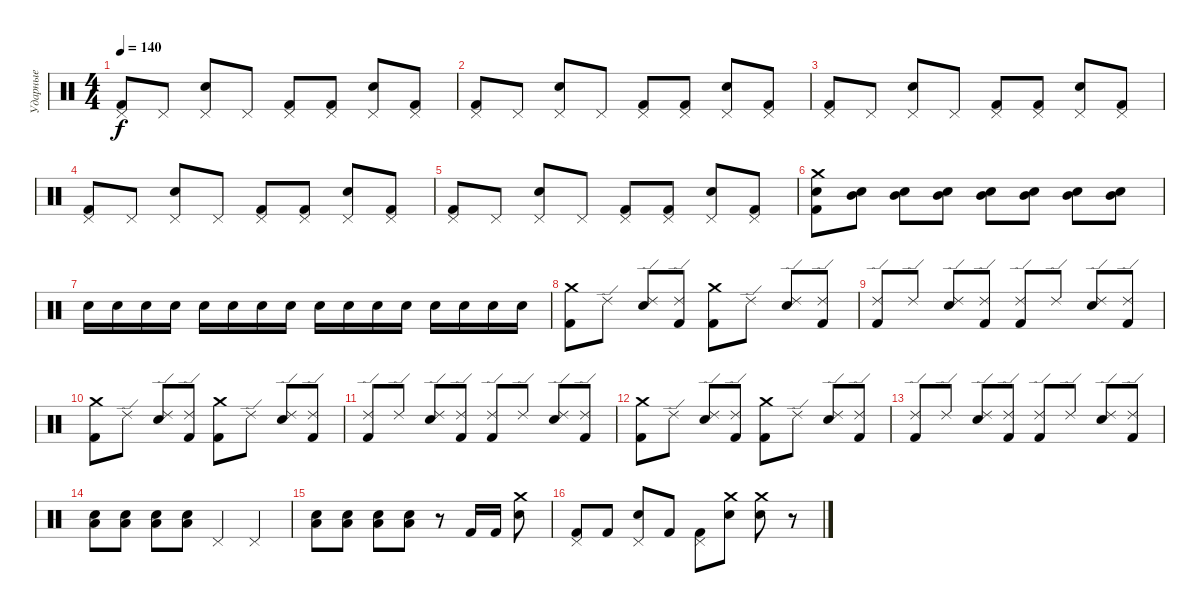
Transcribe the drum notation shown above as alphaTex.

\track ("Ударные" "Ударные") {instrument percussion}
\staff {score}
\articulation defaults
\ts (4 4)
\tempo 140
\clef neutral
\ks c
("Pedal Hi-Hat (hit)" "Kick (hit) 2").8{dy f} "Pedal Hi-Hat (hit)".8 ("Pedal Hi-Hat (hit)" "Snare (hit) 2").8 "Pedal Hi-Hat (hit)".8 ("Pedal Hi-Hat (hit)" "Kick (hit) 2").8 ("Pedal Hi-Hat (hit)" "Kick (hit) 2").8 ("Pedal Hi-Hat (hit)" "Snare (hit) 2").8 ("Pedal Hi-Hat (hit)" "Kick (hit) 2").8 |
("Pedal Hi-Hat (hit)" "Kick (hit) 2").8 "Pedal Hi-Hat (hit)".8 ("Pedal Hi-Hat (hit)" "Snare (hit) 2").8 "Pedal Hi-Hat (hit)".8 ("Pedal Hi-Hat (hit)" "Kick (hit) 2").8 ("Pedal Hi-Hat (hit)" "Kick (hit) 2").8 ("Pedal Hi-Hat (hit)" "Snare (hit) 2").8 ("Pedal Hi-Hat (hit)" "Kick (hit) 2").8 |
("Pedal Hi-Hat (hit)" "Kick (hit) 2").8 "Pedal Hi-Hat (hit)".8 ("Pedal Hi-Hat (hit)" "Snare (hit) 2").8 "Pedal Hi-Hat (hit)".8 ("Pedal Hi-Hat (hit)" "Kick (hit) 2").8 ("Pedal Hi-Hat (hit)" "Kick (hit) 2").8 ("Pedal Hi-Hat (hit)" "Snare (hit) 2").8 ("Pedal Hi-Hat (hit)" "Kick (hit) 2").8 |
("Pedal Hi-Hat (hit)" "Kick (hit) 2").8 "Pedal Hi-Hat (hit)".8 ("Pedal Hi-Hat (hit)" "Snare (hit) 2").8 "Pedal Hi-Hat (hit)".8 ("Pedal Hi-Hat (hit)" "Kick (hit) 2").8 ("Pedal Hi-Hat (hit)" "Kick (hit) 2").8 ("Pedal Hi-Hat (hit)" "Snare (hit) 2").8 ("Pedal Hi-Hat (hit)" "Kick (hit) 2").8 |
("Pedal Hi-Hat (hit)" "Kick (hit) 2").8 "Pedal Hi-Hat (hit)".8 ("Pedal Hi-Hat (hit)" "Snare (hit) 2").8 "Pedal Hi-Hat (hit)".8 ("Pedal Hi-Hat (hit)" "Kick (hit) 2").8 ("Pedal Hi-Hat (hit)" "Kick (hit) 2").8 ("Pedal Hi-Hat (hit)" "Snare (hit) 2").8 ("Pedal Hi-Hat (hit)" "Kick (hit) 2").8 |
("Crash medium (hit)" "Snare (hit) 2" "Kick (hit) 2").8 ("Snare (hit) 2" "Mid Tom (hit)").8 ("Snare (hit) 2" "Mid Tom (hit)").8 ("Snare (hit) 2" "Mid Tom (hit)").8 ("Snare (hit) 2" "Mid Tom (hit)").8 ("Snare (hit) 2" "Mid Tom (hit)").8 ("Snare (hit) 2" "Mid Tom (hit)").8 ("Snare (hit) 2" "Mid Tom (hit)").8 |
"Snare (hit) 2".16 "Snare (hit) 2".16 "Snare (hit) 2".16 "Snare (hit) 2".16 "Snare (hit) 2".16 "Snare (hit) 2".16 "Snare (hit) 2".16 "Snare (hit) 2".16 "Snare (hit) 2".16 "Snare (hit) 2".16 "Snare (hit) 2".16 "Snare (hit) 2".16 "Snare (hit) 2".16 "Snare (hit) 2".16 "Snare (hit) 2".16 "Snare (hit) 2".16 |
("Crash medium (hit)" "Kick (hit) 2").8 "Ride (edge) 2".8 ("Ride (edge) 2" "Snare (hit) 2").8 ("Ride (edge) 2" "Kick (hit) 2").8 ("Crash medium (hit)" "Kick (hit) 2").8 "Ride (edge) 2".8 ("Ride (edge) 2" "Snare (hit) 2").8 ("Ride (edge) 2" "Kick (hit) 2").8 |
("Ride (edge) 2" "Kick (hit) 2").8 "Ride (edge) 2".8 ("Ride (edge) 2" "Snare (hit) 2").8 ("Ride (edge) 2" "Kick (hit) 2").8 ("Ride (edge) 2" "Kick (hit) 2").8 "Ride (edge) 2".8 ("Ride (edge) 2" "Snare (hit) 2").8 ("Ride (edge) 2" "Kick (hit) 2").8 |
("Crash medium (hit)" "Kick (hit) 2").8 "Ride (edge) 2".8 ("Ride (edge) 2" "Snare (hit) 2").8 ("Ride (edge) 2" "Kick (hit) 2").8 ("Crash medium (hit)" "Kick (hit) 2").8 "Ride (edge) 2".8 ("Ride (edge) 2" "Snare (hit) 2").8 ("Ride (edge) 2" "Kick (hit) 2").8 |
("Ride (edge) 2" "Kick (hit) 2").8 "Ride (edge) 2".8 ("Ride (edge) 2" "Snare (hit) 2").8 ("Ride (edge) 2" "Kick (hit) 2").8 ("Ride (edge) 2" "Kick (hit) 2").8 "Ride (edge) 2".8 ("Ride (edge) 2" "Snare (hit) 2").8 ("Ride (edge) 2" "Kick (hit) 2").8 |
("Crash medium (hit)" "Kick (hit) 2").8 "Ride (edge) 2".8 ("Ride (edge) 2" "Snare (hit) 2").8 ("Ride (edge) 2" "Kick (hit) 2").8 ("Crash medium (hit)" "Kick (hit) 2").8 "Ride (edge) 2".8 ("Ride (edge) 2" "Snare (hit) 2").8 ("Ride (edge) 2" "Kick (hit) 2").8 |
("Ride (edge) 2" "Kick (hit) 2").8 "Ride (edge) 2".8 ("Ride (edge) 2" "Snare (hit) 2").8 ("Ride (edge) 2" "Kick (hit) 2").8 ("Ride (edge) 2" "Kick (hit) 2").8 "Ride (edge) 2".8 ("Ride (edge) 2" "Snare (hit) 2").8 ("Ride (edge) 2" "Kick (hit) 2").8 |
("Snare (hit) 2" "Low Tom (hit)").8 ("Snare (hit) 2" "Low Tom (hit)").8 ("Snare (hit) 2" "Low Tom (hit)").8 ("Snare (hit) 2" "Low Tom (hit)").8 "Pedal Hi-Hat (hit)".4 "Pedal Hi-Hat (hit)".4 |
("Snare (hit) 2" "Low Tom (hit)").8 ("Snare (hit) 2" "Low Tom (hit)").8 ("Snare (hit) 2" "Low Tom (hit)").8 ("Snare (hit) 2" "Low Tom (hit)").8 r.8 "Kick (hit) 2".16 "Kick (hit) 2".16 ("Crash medium (hit)" "Snare (hit) 2").8 |
("Pedal Hi-Hat (hit)" "Kick (hit) 2").8 "Kick (hit) 2".8 ("Pedal Hi-Hat (hit)" "Snare (hit) 2").8 "Kick (hit) 2".8 ("Pedal Hi-Hat (hit)" "Kick (hit) 2").8 ("Crash medium (hit)" "Snare (hit) 2").8 ("Crash medium (hit)" "Snare (hit) 2").8 r.8
